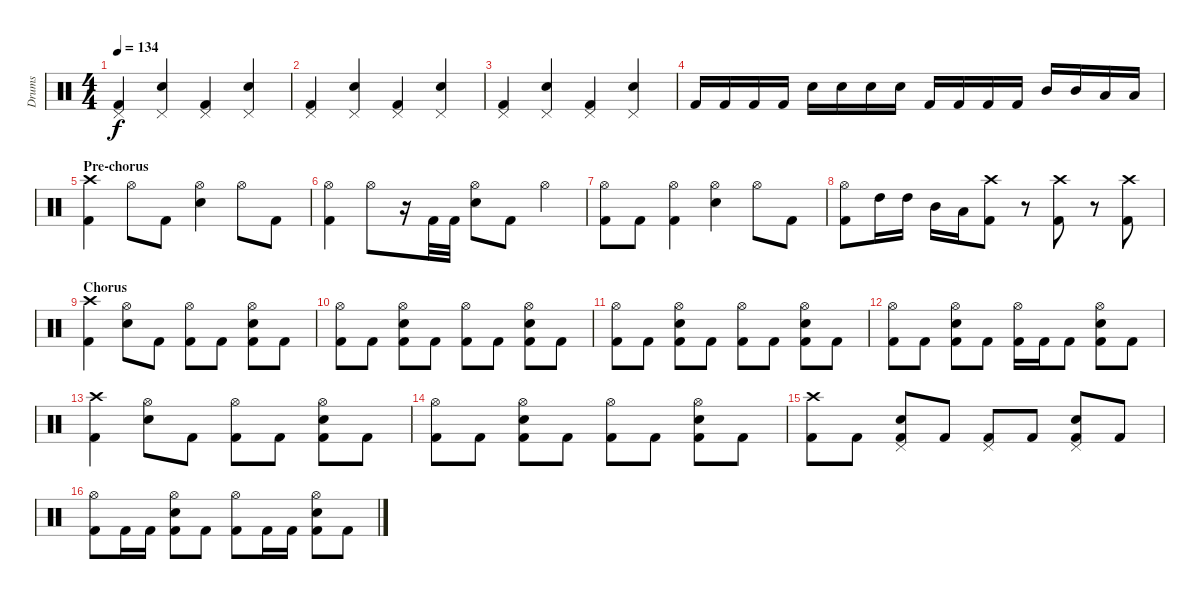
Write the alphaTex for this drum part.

\track ("Drums" "Drums") {instrument percussion}
\staff {score}
\articulation defaults
\ts (4 4)
\tempo 134
\clef neutral
\ks c
("Pedal Hi-Hat (hit)" "Kick (hit) 2").4{dy f} ("Pedal Hi-Hat (hit)" "Snare (hit) 2").4 ("Pedal Hi-Hat (hit)" "Kick (hit) 2").4 ("Pedal Hi-Hat (hit)" "Snare (hit) 2").4 |
("Pedal Hi-Hat (hit)" "Kick (hit) 2").4 ("Pedal Hi-Hat (hit)" "Snare (hit) 2").4 ("Pedal Hi-Hat (hit)" "Kick (hit) 2").4 ("Pedal Hi-Hat (hit)" "Snare (hit) 2").4 |
("Pedal Hi-Hat (hit)" "Kick (hit) 2").4 ("Pedal Hi-Hat (hit)" "Snare (hit) 2").4 ("Pedal Hi-Hat (hit)" "Kick (hit) 2").4 ("Pedal Hi-Hat (hit)" "Snare (hit) 2").4 |
"Kick (hit) 2".16 "Kick (hit) 2".16 "Kick (hit) 2".16 "Kick (hit) 2".16 "Snare (hit) 2".16 "Snare (hit) 2".16 "Snare (hit) 2".16 "Snare (hit) 2".16 "Kick (hit) 2".16 "Kick (hit) 2".16 "Kick (hit) 2".16 "Kick (hit) 2".16 "Mid Tom (hit)".16 "Mid Tom (hit)".16 "Low Tom (hit)".16 "Low Tom (hit)".16 |
\section ("" "Pre-chorus")
("Crash high (hit)" "Kick (hit) 2").4 "Hi-Hat (open)".8 "Kick (hit) 2".8 ("Hi-Hat (open)" "Snare (hit) 2").4 "Hi-Hat (open)".8 "Kick (hit) 2".8 |
("Hi-Hat (open)" "Kick (hit) 2").4 "Hi-Hat (open)".8 r.16 "Kick (hit) 2".32 "Kick (hit) 2".32 ("Hi-Hat (open)" "Snare (hit) 2").8 "Kick (hit) 2".8 "Hi-Hat (open)".4 |
("Hi-Hat (open)" "Kick (hit) 2").8 "Kick (hit) 2".8 ("Hi-Hat (open)" "Kick (hit) 2").4 ("Hi-Hat (open)" "Snare (hit) 2").4 "Hi-Hat (open)".8 "Kick (hit) 2".8 |
("Hi-Hat (open)" "Kick (hit) 2").8 "High Tom (hit)".16 "High Tom (hit)".16 "Mid Tom (hit)".16 "Low Tom (hit)".16 ("Crash high (hit)" "Kick (hit) 2").8 r.8 ("Crash high (hit)" "Kick (hit) 2").8 r.8 ("Crash high (hit)" "Kick (hit) 2").8 |
\section ("" "Chorus")
("Crash high (hit)" "Kick (hit) 2").4 ("Hi-Hat (open)" "Snare (hit) 2").8 "Kick (hit) 2".8 ("Hi-Hat (open)" "Kick (hit) 2").8 "Kick (hit) 2".8 ("Hi-Hat (open)" "Snare (hit) 2" "Kick (hit) 2").8 "Kick (hit) 2".8 |
("Hi-Hat (open)" "Kick (hit) 2").8 "Kick (hit) 2".8 ("Hi-Hat (open)" "Snare (hit) 2" "Kick (hit) 2").8 "Kick (hit) 2".8 ("Hi-Hat (open)" "Kick (hit) 2").8 "Kick (hit) 2".8 ("Hi-Hat (open)" "Snare (hit) 2" "Kick (hit) 2").8 "Kick (hit) 2".8 |
("Hi-Hat (open)" "Kick (hit) 2").8 "Kick (hit) 2".8 ("Hi-Hat (open)" "Snare (hit) 2" "Kick (hit) 2").8 "Kick (hit) 2".8 ("Hi-Hat (open)" "Kick (hit) 2").8 "Kick (hit) 2".8 ("Hi-Hat (open)" "Snare (hit) 2" "Kick (hit) 2").8 "Kick (hit) 2".8 |
("Hi-Hat (open)" "Kick (hit) 2").8 "Kick (hit) 2".8 ("Hi-Hat (open)" "Snare (hit) 2" "Kick (hit) 2").8 "Kick (hit) 2".8 ("Hi-Hat (open)" "Kick (hit) 2").16 "Kick (hit) 2".16 "Kick (hit) 2".8 ("Hi-Hat (open)" "Snare (hit) 2" "Kick (hit) 2").8 "Kick (hit) 2".8 |
("Crash high (hit)" "Kick (hit) 2").4 ("Hi-Hat (open)" "Snare (hit) 2").8 "Kick (hit) 2".8 ("Hi-Hat (open)" "Kick (hit) 2").8 "Kick (hit) 2".8 ("Hi-Hat (open)" "Snare (hit) 2" "Kick (hit) 2").8 "Kick (hit) 2".8 |
("Hi-Hat (open)" "Kick (hit) 2").8 "Kick (hit) 2".8 ("Hi-Hat (open)" "Snare (hit) 2" "Kick (hit) 2").8 "Kick (hit) 2".8 ("Hi-Hat (open)" "Kick (hit) 2").8 "Kick (hit) 2".8 ("Hi-Hat (open)" "Snare (hit) 2" "Kick (hit) 2").8 "Kick (hit) 2".8 |
("Crash high (hit)" "Kick (hit) 2").8 "Kick (hit) 2".8 ("Pedal Hi-Hat (hit)" "Snare (hit) 2" "Kick (hit) 2").8 "Kick (hit) 2".8 ("Pedal Hi-Hat (hit)" "Kick (hit) 2").8 "Kick (hit) 2".8 ("Pedal Hi-Hat (hit)" "Snare (hit) 2" "Kick (hit) 2").8 "Kick (hit) 2".8 |
("Hi-Hat (open)" "Kick (hit) 2").8 "Kick (hit) 2".16 "Kick (hit) 2".16 ("Hi-Hat (open)" "Snare (hit) 2" "Kick (hit) 2").8 "Kick (hit) 2".8 ("Hi-Hat (open)" "Kick (hit) 2").8 "Kick (hit) 2".16 "Kick (hit) 2".16 ("Hi-Hat (open)" "Snare (hit) 2" "Kick (hit) 2").8 "Kick (hit) 2".8
